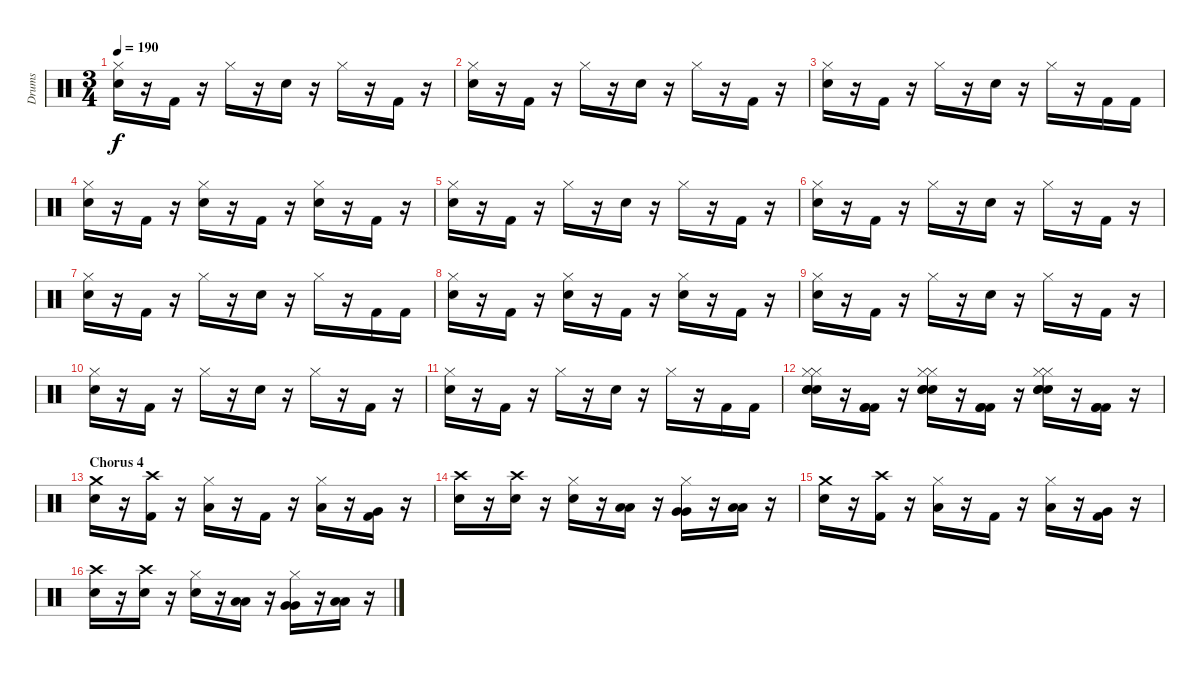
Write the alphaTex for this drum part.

\track ("Drums" "Drums") {instrument percussion}
\staff {score}
\articulation defaults
\ts (3 4)
\tempo 190
\clef neutral
\ks c
("Hi-Hat (closed)" "Snare (hit) 2").16{dy f} r.16 "Kick (hit) 2".16 r.16 "Hi-Hat (closed)".16 r.16 "Snare (hit) 2".16 r.16 "Hi-Hat (closed)".16 r.16 "Kick (hit) 2".16 r.16 |
("Hi-Hat (closed)" "Snare (hit) 2").16 r.16 "Kick (hit) 2".16 r.16 "Hi-Hat (closed)".16 r.16 "Snare (hit) 2".16 r.16 "Hi-Hat (closed)".16 r.16 "Kick (hit) 2".16 r.16 |
("Hi-Hat (closed)" "Snare (hit) 2").16 r.16 "Kick (hit) 2".16 r.16 "Hi-Hat (closed)".16 r.16 "Snare (hit) 2".16 r.16 "Hi-Hat (closed)".16 r.16 "Kick (hit) 2".16 "Kick (hit) 2".16 |
("Hi-Hat (closed)" "Snare (hit) 2").16 r.16 "Kick (hit) 2".16 r.16 ("Hi-Hat (closed)" "Snare (hit) 2").16 r.16 "Kick (hit) 2".16 r.16 ("Hi-Hat (closed)" "Snare (hit) 2").16 r.16 "Kick (hit) 2".16 r.16 |
("Hi-Hat (closed)" "Snare (hit) 2").16 r.16 "Kick (hit) 2".16 r.16 "Hi-Hat (closed)".16 r.16 "Snare (hit) 2".16 r.16 "Hi-Hat (closed)".16 r.16 "Kick (hit) 2".16 r.16 |
("Hi-Hat (closed)" "Snare (hit) 2").16 r.16 "Kick (hit) 2".16 r.16 "Hi-Hat (closed)".16 r.16 "Snare (hit) 2".16 r.16 "Hi-Hat (closed)".16 r.16 "Kick (hit) 2".16 r.16 |
("Hi-Hat (closed)" "Snare (hit) 2").16 r.16 "Kick (hit) 2".16 r.16 "Hi-Hat (closed)".16 r.16 "Snare (hit) 2".16 r.16 "Hi-Hat (closed)".16 r.16 "Kick (hit) 2".16 "Kick (hit) 2".16 |
("Hi-Hat (closed)" "Snare (hit) 2").16 r.16 "Kick (hit) 2".16 r.16 ("Hi-Hat (closed)" "Snare (hit) 2").16 r.16 "Kick (hit) 2".16 r.16 ("Hi-Hat (closed)" "Snare (hit) 2").16 r.16 "Kick (hit) 2".16 r.16 |
("Hi-Hat (closed)" "Snare (hit) 2").16 r.16 "Kick (hit) 2".16 r.16 "Hi-Hat (closed)".16 r.16 "Snare (hit) 2".16 r.16 "Hi-Hat (closed)".16 r.16 "Kick (hit) 2".16 r.16 |
("Hi-Hat (closed)" "Snare (hit) 2").16 r.16 "Kick (hit) 2".16 r.16 "Hi-Hat (closed)".16 r.16 "Snare (hit) 2".16 r.16 "Hi-Hat (closed)".16 r.16 "Kick (hit) 2".16 r.16 |
("Hi-Hat (closed)" "Snare (hit) 2").16 r.16 "Kick (hit) 2".16 r.16 "Hi-Hat (closed)".16 r.16 "Snare (hit) 2".16 r.16 "Hi-Hat (closed)".16 r.16 "Kick (hit) 2".16 "Kick (hit) 2".16 |
("Hi-Hat (closed)" "Hi-Hat (closed)" "Snare (hit) 2" "Snare (hit) 2" "Snare (hit) 2").16 r.16 ("Kick (hit) 2" "Kick (hit) 2" "Kick (hit) 2").16 r.16 ("Hi-Hat (closed)" "Hi-Hat (closed)" "Snare (hit) 2" "Snare (hit) 2" "Snare (hit) 2").16 r.16 ("Kick (hit) 2" "Kick (hit) 2" "Kick (hit) 2").16 r.16 ("Hi-Hat (closed)" "Hi-Hat (closed)" "Snare (hit) 2" "Snare (hit) 2" "Snare (hit) 2").16 r.16 ("Kick (hit) 2" "Kick (hit) 2" "Kick (hit) 2").16 r.16 |
\section ("" "Chorus 4")
("Crash medium (hit)" "Snare (hit) 2").16 r.16 ("Crash high (hit)" "Kick (hit) 2").16 r.16 ("Hi-Hat (closed)" "Low Floor Tom (hit)").16 r.16 "Kick (hit) 2".16 r.16 ("Hi-Hat (closed)" "Low Tom (hit)").16 r.16 ("Very Low Tom (hit)" "Kick (hit) 2").16 r.16 |
("Crash high (hit)" "Snare (hit) 2").16 r.16 ("Crash high (hit)" "Snare (hit) 2").16 r.16 ("Hi-Hat (closed)" "Snare (hit) 2").16 r.16 ("Low Tom (hit)" "Low Tom (hit)").16 r.16 ("Hi-Hat (closed)" "Very Low Tom (hit)" "Very Low Tom (hit)").16 r.16 ("Low Floor Tom (hit)" "Low Floor Tom (hit)").16 r.16 |
("Crash medium (hit)" "Snare (hit) 2").16 r.16 ("Crash high (hit)" "Kick (hit) 2").16 r.16 ("Hi-Hat (closed)" "Low Floor Tom (hit)").16 r.16 "Kick (hit) 2".16 r.16 ("Hi-Hat (closed)" "Low Tom (hit)").16 r.16 ("Very Low Tom (hit)" "Kick (hit) 2").16 r.16 |
("Crash high (hit)" "Snare (hit) 2").16 r.16 ("Crash high (hit)" "Snare (hit) 2").16 r.16 ("Hi-Hat (closed)" "Snare (hit) 2").16 r.16 ("Low Tom (hit)" "Low Tom (hit)").16 r.16 ("Hi-Hat (closed)" "Very Low Tom (hit)" "Very Low Tom (hit)").16 r.16 ("Low Floor Tom (hit)" "Low Floor Tom (hit)").16 r.16
